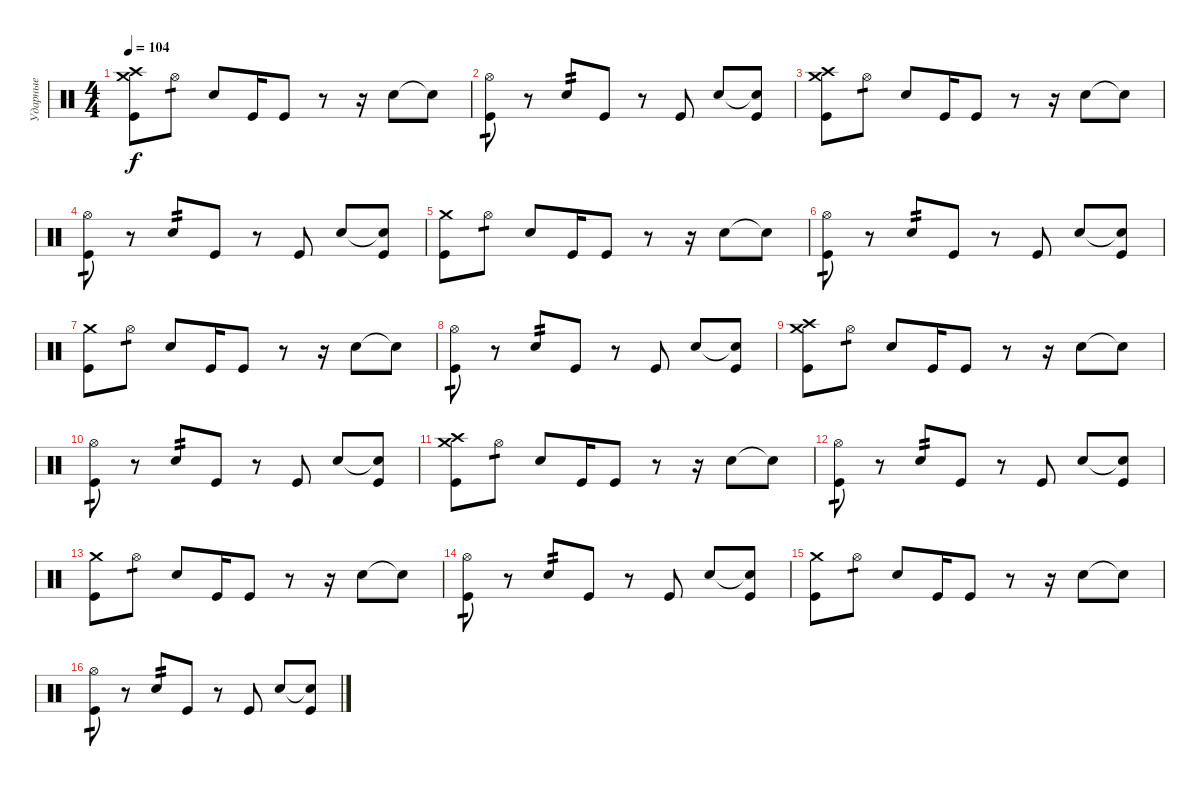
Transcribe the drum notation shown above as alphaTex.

\track ("Ударные" "Ударные") {instrument percussion}
\staff {score}
\articulation defaults
\ts (4 4)
\tempo 104
\clef neutral
\ks c
("Crash high (hit)" "Crash medium (hit)" "Kick (hit)").8{dy f} "Hi-Hat (open)".8{tp 1} "Electric Snare (hit)".8 "Kick (hit)".16 "Kick (hit)".8 r.8 r.16 "Electric Snare (hit)".8 "Snare (hit)"{t}.8 |
("Hi-Hat (open)" "Kick (hit)").8{tp 1} r.8 "Electric Snare (hit)".8{tp 2} "Kick (hit)".8 r.8 "Kick (hit)".8 "Electric Snare (hit)".8 ("Snare (hit)"{t} "Kick (hit)").8 |
("Crash high (hit)" "Crash medium (hit)" "Kick (hit)").8 "Hi-Hat (open)".8{tp 1} "Electric Snare (hit)".8 "Kick (hit)".16 "Kick (hit)".8 r.8 r.16 "Electric Snare (hit)".8 "Snare (hit)"{t}.8 |
("Hi-Hat (open)" "Kick (hit)").8{tp 1} r.8 "Electric Snare (hit)".8{tp 2} "Kick (hit)".8 r.8 "Kick (hit)".8 "Electric Snare (hit)".8 ("Snare (hit)"{t} "Kick (hit)").8 |
("Crash medium (hit)" "Kick (hit)").8 "Hi-Hat (open)".8{tp 1} "Electric Snare (hit)".8 "Kick (hit)".16 "Kick (hit)".8 r.8 r.16 "Electric Snare (hit)".8 "Snare (hit)"{t}.8 |
("Hi-Hat (open)" "Kick (hit)").8{tp 1} r.8 "Electric Snare (hit)".8{tp 2} "Kick (hit)".8 r.8 "Kick (hit)".8 "Electric Snare (hit)".8 ("Snare (hit)"{t} "Kick (hit)").8 |
("Crash medium (hit)" "Kick (hit)").8 "Hi-Hat (open)".8{tp 1} "Electric Snare (hit)".8 "Kick (hit)".16 "Kick (hit)".8 r.8 r.16 "Electric Snare (hit)".8 "Snare (hit)"{t}.8 |
("Hi-Hat (open)" "Kick (hit)").8{tp 1} r.8 "Electric Snare (hit)".8{tp 2} "Kick (hit)".8 r.8 "Kick (hit)".8 "Electric Snare (hit)".8 ("Snare (hit)"{t} "Kick (hit)").8 |
("Crash high (hit)" "Crash medium (hit)" "Kick (hit)").8 "Hi-Hat (open)".8{tp 1} "Electric Snare (hit)".8 "Kick (hit)".16 "Kick (hit)".8 r.8 r.16 "Electric Snare (hit)".8 "Snare (hit)"{t}.8 |
("Hi-Hat (open)" "Kick (hit)").8{tp 1} r.8 "Electric Snare (hit)".8{tp 2} "Kick (hit)".8 r.8 "Kick (hit)".8 "Electric Snare (hit)".8 ("Snare (hit)"{t} "Kick (hit)").8 |
("Crash high (hit)" "Crash medium (hit)" "Kick (hit)").8 "Hi-Hat (open)".8{tp 1} "Electric Snare (hit)".8 "Kick (hit)".16 "Kick (hit)".8 r.8 r.16 "Electric Snare (hit)".8 "Snare (hit)"{t}.8 |
("Hi-Hat (open)" "Kick (hit)").8{tp 1} r.8 "Electric Snare (hit)".8{tp 2} "Kick (hit)".8 r.8 "Kick (hit)".8 "Electric Snare (hit)".8 ("Snare (hit)"{t} "Kick (hit)").8 |
("Crash medium (hit)" "Kick (hit)").8 "Hi-Hat (open)".8{tp 1} "Electric Snare (hit)".8 "Kick (hit)".16 "Kick (hit)".8 r.8 r.16 "Electric Snare (hit)".8 "Snare (hit)"{t}.8 |
("Hi-Hat (open)" "Kick (hit)").8{tp 1} r.8 "Electric Snare (hit)".8{tp 2} "Kick (hit)".8 r.8 "Kick (hit)".8 "Electric Snare (hit)".8 ("Snare (hit)"{t} "Kick (hit)").8 |
("Crash medium (hit)" "Kick (hit)").8 "Hi-Hat (open)".8{tp 1} "Electric Snare (hit)".8 "Kick (hit)".16 "Kick (hit)".8 r.8 r.16 "Electric Snare (hit)".8 "Snare (hit)"{t}.8 |
("Hi-Hat (open)" "Kick (hit)").8{tp 1} r.8 "Electric Snare (hit)".8{tp 2} "Kick (hit)".8 r.8 "Kick (hit)".8 "Electric Snare (hit)".8 ("Snare (hit)"{t} "Kick (hit)").8
